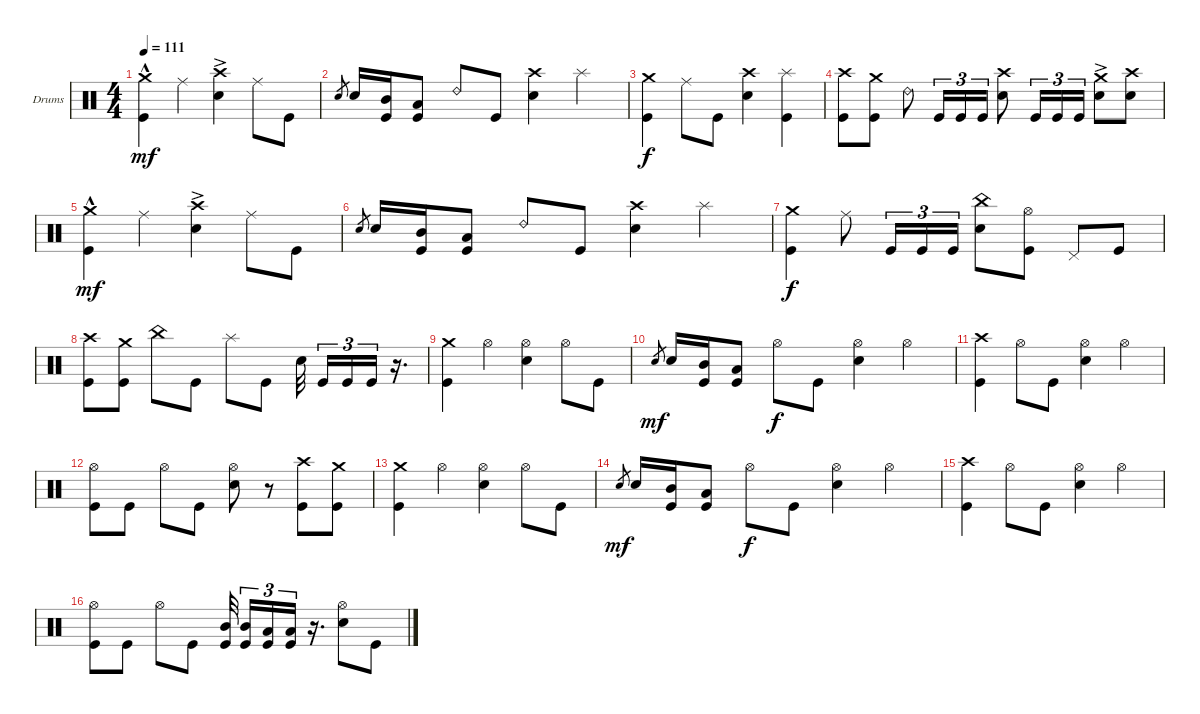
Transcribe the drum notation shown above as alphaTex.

\defaultSystemsLayout 4
\bracketExtendMode groupsimilarinstruments
\firstSystemTrackNameOrientation horizontal
\otherSystemsTrackNameOrientation horizontal
\track ("Drumkit" "Drums") {instrument percussion}
\staff {score}
\articulation defaults
\ts (4 4)
\tempo 111
\clef neutral
\ks c
("Kick (hit)" "Crash medium (hit)"{hac}).4{dy mf} "Ride (middle)".4 ("Snare (hit) 2"{ac} "Crash high (hit)").4 "Ride (middle)".8 "Kick (hit)".8 |
"Snare (hit) 2".8{gr} "Snare (hit) 2".16 ("Kick (hit)" "Mid Tom (hit)").16 ("Kick (hit)" "Low Tom (hit)").8 "Ride (bell) 2".8 "Kick (hit)".8 ("Snare (hit) 2" "Crash high (hit)").4 "Splash (hit)".4 |
("Crash medium (hit)" "Kick (hit)").4{dy f} "Ride (middle)".8 "Kick (hit)".8 ("Crash high (hit)" "Snare (hit) 2").4 ("Splash (hit)" "Kick (hit)").4 |
("Crash high (hit)" "Kick (hit)").8 ("Crash medium (hit)" "Kick (hit)").8 "Ride (bell) 2".8 "Kick (hit)".16{tu (3 2)} "Kick (hit)".16{tu (3 2)} "Kick (hit)".16{tu (3 2)} ("Snare (hit) 2" "Crash high (hit)").8 "Kick (hit)".16{tu (3 2)} "Kick (hit)".16{tu (3 2)} "Kick (hit)".16{tu (3 2)} ("Snare (hit) 2" "Crash medium (hit)"{ac}).8 ("Snare (hit) 2" "Crash high (hit)").8 |
("Kick (hit)" "Crash medium (hit)"{hac}).4{dy mf} "Ride (middle)".4 ("Snare (hit) 2"{ac} "Crash high (hit)").4 "Ride (middle)".8 "Kick (hit)".8 |
"Snare (hit) 2".8{gr} "Snare (hit) 2".16 ("Kick (hit)" "Mid Tom (hit)").16 ("Kick (hit)" "Low Tom (hit)").8 "Ride (bell) 2".8 "Kick (hit)".8 ("Snare (hit) 2" "Crash high (hit)").4 "Splash (hit)".4 |
("Crash medium (hit)" "Kick (hit)").4{dy f} "Ride (middle)".8 "Kick (hit)".16{tu (3 2)} "Kick (hit)".16{tu (3 2)} "Kick (hit)".16{tu (3 2)} ("Snare (hit) 2" "China (hit)").8 ("Kick (hit)" "Hi-Hat (open)").8 "Pedal Hi-Hat (hit)".8 "Kick (hit)".8 |
("Crash high (hit)" "Kick (hit)").8 ("Crash medium (hit)" "Kick (hit)").8 "China (hit)".8 "Kick (hit)".8 "Splash (hit)".8 "Kick (hit)".8 "Snare (hit) 2".32 "Kick (hit)".16{tu (3 2)} "Kick (hit)".16{tu (3 2)} "Kick (hit)".16{tu (3 2)} r.16{d} |
("Crash medium (hit)" "Kick (hit)").4 "Hi-Hat (open)".4 ("Snare (hit) 2" "Hi-Hat (open)").4 "Hi-Hat (open)".8 "Kick (hit)".8 |
"Snare (hit) 2".8{gr dy mf} "Snare (hit) 2".16 ("Kick (hit)" "Mid Tom (hit)").16 ("Kick (hit)" "Low Tom (hit)").8 "Hi-Hat (open)".8{dy f} "Kick (hit)".8 ("Snare (hit) 2" "Hi-Hat (open)").4 "Hi-Hat (open)".4 |
("Kick (hit)" "Crash high (hit)").4 "Hi-Hat (open)".8 "Kick (hit)".8 ("Snare (hit) 2" "Hi-Hat (open)").4 "Hi-Hat (open)".4 |
("Hi-Hat (open)" "Kick (hit)").8 "Kick (hit)".8 "Hi-Hat (open)".8 "Kick (hit)".8 ("Hi-Hat (open)" "Snare (hit) 2").8 r.8 ("Crash high (hit)" "Kick (hit)").8 ("Crash medium (hit)" "Kick (hit)").8 |
("Crash medium (hit)" "Kick (hit)").4 "Hi-Hat (open)".4 ("Snare (hit) 2" "Hi-Hat (open)").4 "Hi-Hat (open)".8 "Kick (hit)".8 |
"Snare (hit) 2".8{gr dy mf} "Snare (hit) 2".16 ("Kick (hit)" "Mid Tom (hit)").16 ("Kick (hit)" "Low Tom (hit)").8 "Hi-Hat (open)".8{dy f} "Kick (hit)".8 ("Snare (hit) 2" "Hi-Hat (open)").4 "Hi-Hat (open)".4 |
("Kick (hit)" "Crash high (hit)").4 "Hi-Hat (open)".8 "Kick (hit)".8 ("Snare (hit) 2" "Hi-Hat (open)").4 "Hi-Hat (open)".4 |
("Hi-Hat (open)" "Kick (hit)").8 "Kick (hit)".8 "Hi-Hat (open)".8 "Kick (hit)".8 ("Kick (hit)" "Mid Tom (hit)").32 ("Kick (hit)" "Mid Tom (hit)").16{tu (3 2)} ("Kick (hit)" "Low Tom (hit)").16{tu (3 2)} ("Kick (hit)" "Low Tom (hit)").16{tu (3 2)} r.16{d} ("Snare (hit) 2" "Hi-Hat (open)").8 "Kick (hit)".8
